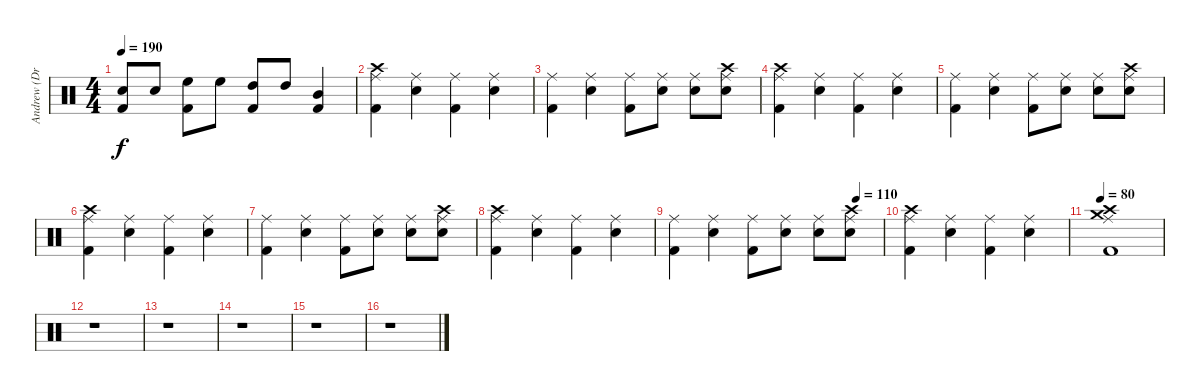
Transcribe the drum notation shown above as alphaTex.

\track ("Andrew (Drums)" "Andrew (Dr") {instrument percussion}
\staff {score}
\articulation defaults
\ts (4 4)
\tempo 190
\clef neutral
\ks c
("Snare (hit) 2" "Kick (hit) 2").8{dy f} "Snare (hit) 2".8 ("High Floor Tom (hit)" "Kick (hit) 2").8 "High Floor Tom (hit)".8 ("High Tom (hit)" "Kick (hit) 2").8 "High Tom (hit)".8 ("Mid Tom (hit)" "Kick (hit) 2").4 |
("Crash high (hit)" "Ride (middle)" "Kick (hit) 2").4 ("Ride (middle)" "Snare (hit) 2").4 ("Ride (middle)" "Kick (hit) 2").4 ("Ride (middle)" "Snare (hit) 2").4 |
("Ride (middle)" "Kick (hit) 2").4 ("Ride (middle)" "Snare (hit) 2").4 ("Ride (middle)" "Kick (hit) 2").8 ("Ride (middle)" "Snare (hit) 2").8 ("Ride (middle)" "Snare (hit) 2").8 ("Crash high (hit)" "Ride (middle)" "Snare (hit) 2").8 |
("Crash high (hit)" "Ride (middle)" "Kick (hit) 2").4 ("Ride (middle)" "Snare (hit) 2").4 ("Ride (middle)" "Kick (hit) 2").4 ("Ride (middle)" "Snare (hit) 2").4 |
("Ride (middle)" "Kick (hit) 2").4 ("Ride (middle)" "Snare (hit) 2").4 ("Ride (middle)" "Kick (hit) 2").8 ("Ride (middle)" "Snare (hit) 2").8 ("Ride (middle)" "Snare (hit) 2").8 ("Crash high (hit)" "Ride (middle)" "Snare (hit) 2").8 |
("Crash high (hit)" "Ride (middle)" "Kick (hit) 2").4 ("Ride (middle)" "Snare (hit) 2").4 ("Ride (middle)" "Kick (hit) 2").4 ("Ride (middle)" "Snare (hit) 2").4 |
("Ride (middle)" "Kick (hit) 2").4 ("Ride (middle)" "Snare (hit) 2").4 ("Ride (middle)" "Kick (hit) 2").8 ("Ride (middle)" "Snare (hit) 2").8 ("Ride (middle)" "Snare (hit) 2").8 ("Crash high (hit)" "Ride (middle)" "Snare (hit) 2").8 |
("Crash high (hit)" "Ride (middle)" "Kick (hit) 2").4 ("Ride (middle)" "Snare (hit) 2").4 ("Ride (middle)" "Kick (hit) 2").4 ("Ride (middle)" "Snare (hit) 2").4 |
\tempo (110 0.875)
("Ride (middle)" "Kick (hit) 2").4 ("Ride (middle)" "Snare (hit) 2").4 ("Ride (middle)" "Kick (hit) 2").8 ("Ride (middle)" "Snare (hit) 2").8 ("Ride (middle)" "Snare (hit) 2").8 ("Crash high (hit)" "Ride (middle)" "Snare (hit) 2").8 |
("Crash high (hit)" "Ride (middle)" "Kick (hit) 2").4 ("Ride (middle)" "Snare (hit) 2").4 ("Ride (middle)" "Kick (hit) 2").4 ("Ride (middle)" "Snare (hit) 2").4 |
\tempo 80
("Crash high (hit)" "Crash medium (hit)" "Ride (middle)" "Kick (hit) 2").1 |
r.1 |
r.1 |
r.1 |
r.1 |
r.1
